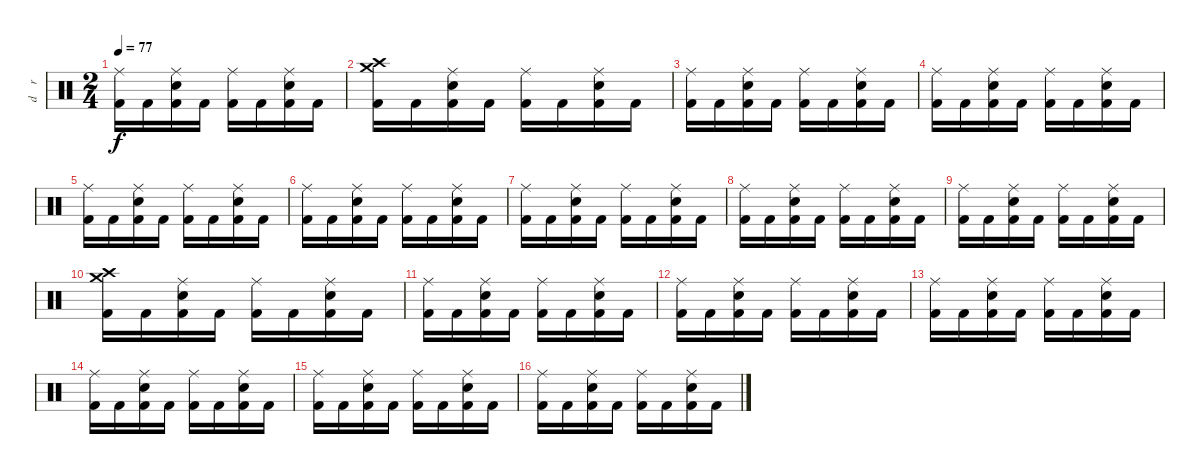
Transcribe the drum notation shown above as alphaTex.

\track ("d    r     u    m    s" "d    r    ") {instrument percussion}
\staff {score}
\articulation defaults
\ts (2 4)
\tempo 77
\clef neutral
\ks c
("Ride (middle)" "Kick (hit) 2").16{dy f} "Kick (hit) 2".16 ("Ride (middle)" "Electric Snare (hit)" "Kick (hit) 2").16 "Kick (hit) 2".16 ("Ride (middle)" "Kick (hit) 2").16 "Kick (hit) 2".16 ("Ride (middle)" "Electric Snare (hit)" "Kick (hit) 2").16 "Kick (hit) 2".16 |
("Crash high (hit)" "Crash medium (hit)" "Kick (hit) 2").16 "Kick (hit) 2".16 ("Ride (middle)" "Electric Snare (hit)" "Kick (hit) 2").16 "Kick (hit) 2".16 ("Ride (middle)" "Kick (hit) 2").16 "Kick (hit) 2".16 ("Ride (middle)" "Electric Snare (hit)" "Kick (hit) 2").16 "Kick (hit) 2".16 |
("Ride (middle)" "Kick (hit) 2").16 "Kick (hit) 2".16 ("Ride (middle)" "Electric Snare (hit)" "Kick (hit) 2").16 "Kick (hit) 2".16 ("Ride (middle)" "Kick (hit) 2").16 "Kick (hit) 2".16 ("Ride (middle)" "Electric Snare (hit)" "Kick (hit) 2").16 "Kick (hit) 2".16 |
("Ride (middle)" "Kick (hit) 2").16 "Kick (hit) 2".16 ("Ride (middle)" "Electric Snare (hit)" "Kick (hit) 2").16 "Kick (hit) 2".16 ("Ride (middle)" "Kick (hit) 2").16 "Kick (hit) 2".16 ("Ride (middle)" "Electric Snare (hit)" "Kick (hit) 2").16 "Kick (hit) 2".16 |
("Ride (middle)" "Kick (hit) 2").16 "Kick (hit) 2".16 ("Ride (middle)" "Electric Snare (hit)" "Kick (hit) 2").16 "Kick (hit) 2".16 ("Ride (middle)" "Kick (hit) 2").16 "Kick (hit) 2".16 ("Ride (middle)" "Electric Snare (hit)" "Kick (hit) 2").16 "Kick (hit) 2".16 |
("Ride (middle)" "Kick (hit) 2").16 "Kick (hit) 2".16 ("Ride (middle)" "Electric Snare (hit)" "Kick (hit) 2").16 "Kick (hit) 2".16 ("Ride (middle)" "Kick (hit) 2").16 "Kick (hit) 2".16 ("Ride (middle)" "Electric Snare (hit)" "Kick (hit) 2").16 "Kick (hit) 2".16 |
("Ride (middle)" "Kick (hit) 2").16 "Kick (hit) 2".16 ("Ride (middle)" "Electric Snare (hit)" "Kick (hit) 2").16 "Kick (hit) 2".16 ("Ride (middle)" "Kick (hit) 2").16 "Kick (hit) 2".16 ("Ride (middle)" "Electric Snare (hit)" "Kick (hit) 2").16 "Kick (hit) 2".16 |
("Ride (middle)" "Kick (hit) 2").16 "Kick (hit) 2".16 ("Ride (middle)" "Electric Snare (hit)" "Kick (hit) 2").16 "Kick (hit) 2".16 ("Ride (middle)" "Kick (hit) 2").16 "Kick (hit) 2".16 ("Ride (middle)" "Electric Snare (hit)" "Kick (hit) 2").16 "Kick (hit) 2".16 |
("Ride (middle)" "Kick (hit) 2").16 "Kick (hit) 2".16 ("Ride (middle)" "Electric Snare (hit)" "Kick (hit) 2").16 "Kick (hit) 2".16 ("Ride (middle)" "Kick (hit) 2").16 "Kick (hit) 2".16 ("Ride (middle)" "Electric Snare (hit)" "Kick (hit) 2").16 "Kick (hit) 2".16 |
("Crash high (hit)" "Crash medium (hit)" "Kick (hit) 2").16 "Kick (hit) 2".16 ("Ride (middle)" "Electric Snare (hit)" "Kick (hit) 2").16 "Kick (hit) 2".16 ("Ride (middle)" "Kick (hit) 2").16 "Kick (hit) 2".16 ("Ride (middle)" "Electric Snare (hit)" "Kick (hit) 2").16 "Kick (hit) 2".16 |
("Ride (middle)" "Kick (hit) 2").16 "Kick (hit) 2".16 ("Ride (middle)" "Electric Snare (hit)" "Kick (hit) 2").16 "Kick (hit) 2".16 ("Ride (middle)" "Kick (hit) 2").16 "Kick (hit) 2".16 ("Ride (middle)" "Electric Snare (hit)" "Kick (hit) 2").16 "Kick (hit) 2".16 |
("Ride (middle)" "Kick (hit) 2").16 "Kick (hit) 2".16 ("Ride (middle)" "Electric Snare (hit)" "Kick (hit) 2").16 "Kick (hit) 2".16 ("Ride (middle)" "Kick (hit) 2").16 "Kick (hit) 2".16 ("Ride (middle)" "Electric Snare (hit)" "Kick (hit) 2").16 "Kick (hit) 2".16 |
("Ride (middle)" "Kick (hit) 2").16 "Kick (hit) 2".16 ("Ride (middle)" "Electric Snare (hit)" "Kick (hit) 2").16 "Kick (hit) 2".16 ("Ride (middle)" "Kick (hit) 2").16 "Kick (hit) 2".16 ("Ride (middle)" "Electric Snare (hit)" "Kick (hit) 2").16 "Kick (hit) 2".16 |
("Ride (middle)" "Kick (hit) 2").16 "Kick (hit) 2".16 ("Ride (middle)" "Electric Snare (hit)" "Kick (hit) 2").16 "Kick (hit) 2".16 ("Ride (middle)" "Kick (hit) 2").16 "Kick (hit) 2".16 ("Ride (middle)" "Electric Snare (hit)" "Kick (hit) 2").16 "Kick (hit) 2".16 |
("Ride (middle)" "Kick (hit) 2").16 "Kick (hit) 2".16 ("Ride (middle)" "Electric Snare (hit)" "Kick (hit) 2").16 "Kick (hit) 2".16 ("Ride (middle)" "Kick (hit) 2").16 "Kick (hit) 2".16 ("Ride (middle)" "Electric Snare (hit)" "Kick (hit) 2").16 "Kick (hit) 2".16 |
("Ride (middle)" "Kick (hit) 2").16 "Kick (hit) 2".16 ("Ride (middle)" "Electric Snare (hit)" "Kick (hit) 2").16 "Kick (hit) 2".16 ("Ride (middle)" "Kick (hit) 2").16 "Kick (hit) 2".16 ("Ride (middle)" "Electric Snare (hit)" "Kick (hit) 2").16 "Kick (hit) 2".16
